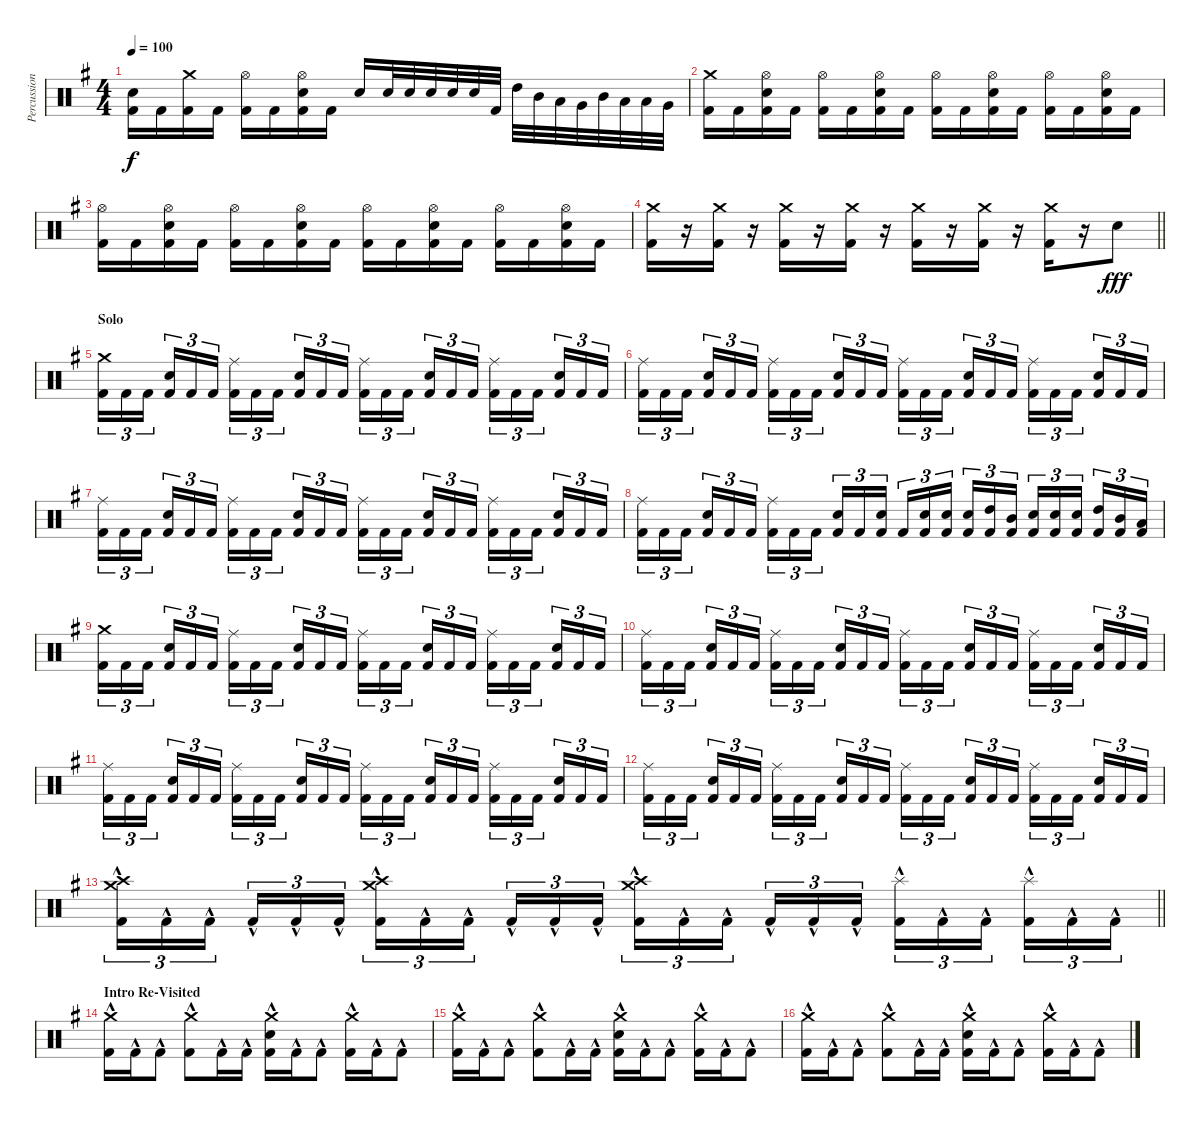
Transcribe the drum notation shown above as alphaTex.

\track ("Percussion" "Percussion") {instrument percussion}
\staff {score}
\articulation defaults
\ts (4 4)
\tempo 100
\clef neutral
\ks eminor
("Snare (hit) 2" "Kick (hit) 2").16{dy f} "Kick (hit) 2".16 ("Crash medium (hit)" "Kick (hit) 2").16 "Kick (hit) 2".16 ("Hi-Hat (open)" "Kick (hit) 2").16 "Kick (hit) 2".16 ("Hi-Hat (open)" "Snare (hit) 2" "Kick (hit) 2").16 "Kick (hit) 2".16 "Snare (hit) 2".16 "Snare (hit) 2".32 "Snare (hit) 2".32 "Snare (hit) 2".32 "Snare (hit) 2".32 "Snare (hit) 2".32 "Kick (hit) 2".32 "High Tom (hit)".32 "Mid Tom (hit)".32 "Low Tom (hit)".32 "Very Low Tom (hit)".32 "Mid Tom (hit)".32 "Low Tom (hit)".32 "Low Tom (hit)".32 "Very Low Tom (hit)".32 |
("Crash medium (hit)" "Kick (hit) 2").16 "Kick (hit) 2".16 ("Hi-Hat (open)" "Snare (hit) 2" "Kick (hit) 2").16 "Kick (hit) 2".16 ("Hi-Hat (open)" "Kick (hit) 2").16 "Kick (hit) 2".16 ("Hi-Hat (open)" "Snare (hit) 2" "Kick (hit) 2").16 "Kick (hit) 2".16 ("Hi-Hat (open)" "Kick (hit) 2").16 "Kick (hit) 2".16 ("Hi-Hat (open)" "Snare (hit) 2" "Kick (hit) 2").16 "Kick (hit) 2".16 ("Hi-Hat (open)" "Kick (hit) 2").16 "Kick (hit) 2".16 ("Hi-Hat (open)" "Snare (hit) 2" "Kick (hit) 2").16 "Kick (hit) 2".16 |
("Hi-Hat (open)" "Kick (hit) 2").16 "Kick (hit) 2".16 ("Hi-Hat (open)" "Snare (hit) 2" "Kick (hit) 2").16 "Kick (hit) 2".16 ("Hi-Hat (open)" "Kick (hit) 2").16 "Kick (hit) 2".16 ("Hi-Hat (open)" "Snare (hit) 2" "Kick (hit) 2").16 "Kick (hit) 2".16 ("Hi-Hat (open)" "Kick (hit) 2").16 "Kick (hit) 2".16 ("Hi-Hat (open)" "Snare (hit) 2" "Kick (hit) 2").16 "Kick (hit) 2".16 ("Hi-Hat (open)" "Kick (hit) 2").16 "Kick (hit) 2".16 ("Hi-Hat (open)" "Snare (hit) 2" "Kick (hit) 2").16 "Kick (hit) 2".16 |
\barLineRight lightlight
("Crash medium (hit)" "Kick (hit) 2").16 r.16 ("Crash medium (hit)" "Kick (hit) 2").16 r.16 ("Crash medium (hit)" "Kick (hit) 2").16 r.16 ("Crash medium (hit)" "Kick (hit) 2").16 r.16 ("Crash medium (hit)" "Kick (hit) 2").16 r.16 ("Crash medium (hit)" "Kick (hit) 2").16 r.16 ("Crash medium (hit)" "Kick (hit) 2").16 r.16 "Snare (hit) 2".8{dy fff} |
\section ("" "Solo")
("Crash medium (hit)" "Kick (hit) 2").16{tu (3 2)} "Kick (hit) 2".16{tu (3 2)} "Kick (hit) 2".16{tu (3 2) beam splitsecondary} ("Snare (hit) 2" "Kick (hit) 2").16{tu (3 2)} "Kick (hit) 2".16{tu (3 2)} "Kick (hit) 2".16{tu (3 2)} ("Ride (middle)" "Kick (hit) 2").16{tu (3 2)} "Kick (hit) 2".16{tu (3 2)} "Kick (hit) 2".16{tu (3 2) beam splitsecondary} ("Snare (hit) 2" "Kick (hit) 2").16{tu (3 2)} "Kick (hit) 2".16{tu (3 2)} "Kick (hit) 2".16{tu (3 2)} ("Ride (middle)" "Kick (hit) 2").16{tu (3 2)} "Kick (hit) 2".16{tu (3 2)} "Kick (hit) 2".16{tu (3 2) beam splitsecondary} ("Snare (hit) 2" "Kick (hit) 2").16{tu (3 2)} "Kick (hit) 2".16{tu (3 2)} "Kick (hit) 2".16{tu (3 2)} ("Ride (middle)" "Kick (hit) 2").16{tu (3 2)} "Kick (hit) 2".16{tu (3 2)} "Kick (hit) 2".16{tu (3 2) beam splitsecondary} ("Snare (hit) 2" "Kick (hit) 2").16{tu (3 2)} "Kick (hit) 2".16{tu (3 2)} "Kick (hit) 2".16{tu (3 2)} |
("Ride (middle)" "Kick (hit) 2").16{tu (3 2)} "Kick (hit) 2".16{tu (3 2)} "Kick (hit) 2".16{tu (3 2) beam splitsecondary} ("Snare (hit) 2" "Kick (hit) 2").16{tu (3 2)} "Kick (hit) 2".16{tu (3 2)} "Kick (hit) 2".16{tu (3 2)} ("Ride (middle)" "Kick (hit) 2").16{tu (3 2)} "Kick (hit) 2".16{tu (3 2)} "Kick (hit) 2".16{tu (3 2) beam splitsecondary} ("Snare (hit) 2" "Kick (hit) 2").16{tu (3 2)} "Kick (hit) 2".16{tu (3 2)} "Kick (hit) 2".16{tu (3 2)} ("Ride (middle)" "Kick (hit) 2").16{tu (3 2)} "Kick (hit) 2".16{tu (3 2)} "Kick (hit) 2".16{tu (3 2) beam splitsecondary} ("Snare (hit) 2" "Kick (hit) 2").16{tu (3 2)} "Kick (hit) 2".16{tu (3 2)} "Kick (hit) 2".16{tu (3 2)} ("Ride (middle)" "Kick (hit) 2").16{tu (3 2)} "Kick (hit) 2".16{tu (3 2)} "Kick (hit) 2".16{tu (3 2) beam splitsecondary} ("Snare (hit) 2" "Kick (hit) 2").16{tu (3 2)} "Kick (hit) 2".16{tu (3 2)} "Kick (hit) 2".16{tu (3 2)} |
("Ride (middle)" "Kick (hit) 2").16{tu (3 2)} "Kick (hit) 2".16{tu (3 2)} "Kick (hit) 2".16{tu (3 2) beam splitsecondary} ("Snare (hit) 2" "Kick (hit) 2").16{tu (3 2)} "Kick (hit) 2".16{tu (3 2)} "Kick (hit) 2".16{tu (3 2)} ("Ride (middle)" "Kick (hit) 2").16{tu (3 2)} "Kick (hit) 2".16{tu (3 2)} "Kick (hit) 2".16{tu (3 2) beam splitsecondary} ("Snare (hit) 2" "Kick (hit) 2").16{tu (3 2)} "Kick (hit) 2".16{tu (3 2)} "Kick (hit) 2".16{tu (3 2)} ("Ride (middle)" "Kick (hit) 2").16{tu (3 2)} "Kick (hit) 2".16{tu (3 2)} "Kick (hit) 2".16{tu (3 2) beam splitsecondary} ("Snare (hit) 2" "Kick (hit) 2").16{tu (3 2)} "Kick (hit) 2".16{tu (3 2)} "Kick (hit) 2".16{tu (3 2)} ("Ride (middle)" "Kick (hit) 2").16{tu (3 2)} "Kick (hit) 2".16{tu (3 2)} "Kick (hit) 2".16{tu (3 2) beam splitsecondary} ("Snare (hit) 2" "Kick (hit) 2").16{tu (3 2)} "Kick (hit) 2".16{tu (3 2)} "Kick (hit) 2".16{tu (3 2)} |
("Ride (middle)" "Kick (hit) 2").16{tu (3 2)} "Kick (hit) 2".16{tu (3 2)} "Kick (hit) 2".16{tu (3 2) beam splitsecondary} ("Snare (hit) 2" "Kick (hit) 2").16{tu (3 2)} "Kick (hit) 2".16{tu (3 2)} "Kick (hit) 2".16{tu (3 2)} ("Ride (middle)" "Kick (hit) 2").16{tu (3 2)} "Kick (hit) 2".16{tu (3 2)} "Kick (hit) 2".16{tu (3 2) beam splitsecondary} ("Snare (hit) 2" "Kick (hit) 2").16{tu (3 2)} "Kick (hit) 2".16{tu (3 2)} ("Snare (hit) 2" "Kick (hit) 2").16{tu (3 2)} "Kick (hit) 2".16{tu (3 2)} ("Snare (hit) 2" "Kick (hit) 2").16{tu (3 2)} ("Snare (hit) 2" "Kick (hit) 2").16{tu (3 2) beam splitsecondary} ("Snare (hit) 2" "Kick (hit) 2").16{tu (3 2)} ("High Tom (hit)" "Kick (hit) 2").16{tu (3 2)} ("Mid Tom (hit)" "Kick (hit) 2").16{tu (3 2)} ("Snare (hit) 2" "Kick (hit) 2").16{tu (3 2)} ("Snare (hit) 2" "Kick (hit) 2").16{tu (3 2)} ("Snare (hit) 2" "Kick (hit) 2").16{tu (3 2) beam splitsecondary} ("High Tom (hit)" "Kick (hit) 2").16{tu (3 2)} ("Mid Tom (hit)" "Kick (hit) 2").16{tu (3 2)} ("Low Tom (hit)" "Kick (hit) 2").16{tu (3 2)} |
("Crash medium (hit)" "Kick (hit) 2").16{tu (3 2)} "Kick (hit) 2".16{tu (3 2)} "Kick (hit) 2".16{tu (3 2) beam splitsecondary} ("Snare (hit) 2" "Kick (hit) 2").16{tu (3 2)} "Kick (hit) 2".16{tu (3 2)} "Kick (hit) 2".16{tu (3 2)} ("Ride (middle)" "Kick (hit) 2").16{tu (3 2)} "Kick (hit) 2".16{tu (3 2)} "Kick (hit) 2".16{tu (3 2) beam splitsecondary} ("Snare (hit) 2" "Kick (hit) 2").16{tu (3 2)} "Kick (hit) 2".16{tu (3 2)} "Kick (hit) 2".16{tu (3 2)} ("Ride (middle)" "Kick (hit) 2").16{tu (3 2)} "Kick (hit) 2".16{tu (3 2)} "Kick (hit) 2".16{tu (3 2) beam splitsecondary} ("Snare (hit) 2" "Kick (hit) 2").16{tu (3 2)} "Kick (hit) 2".16{tu (3 2)} "Kick (hit) 2".16{tu (3 2)} ("Ride (middle)" "Kick (hit) 2").16{tu (3 2)} "Kick (hit) 2".16{tu (3 2)} "Kick (hit) 2".16{tu (3 2) beam splitsecondary} ("Snare (hit) 2" "Kick (hit) 2").16{tu (3 2)} "Kick (hit) 2".16{tu (3 2)} "Kick (hit) 2".16{tu (3 2)} |
("Ride (middle)" "Kick (hit) 2").16{tu (3 2)} "Kick (hit) 2".16{tu (3 2)} "Kick (hit) 2".16{tu (3 2) beam splitsecondary} ("Snare (hit) 2" "Kick (hit) 2").16{tu (3 2)} "Kick (hit) 2".16{tu (3 2)} "Kick (hit) 2".16{tu (3 2)} ("Ride (middle)" "Kick (hit) 2").16{tu (3 2)} "Kick (hit) 2".16{tu (3 2)} "Kick (hit) 2".16{tu (3 2) beam splitsecondary} ("Snare (hit) 2" "Kick (hit) 2").16{tu (3 2)} "Kick (hit) 2".16{tu (3 2)} "Kick (hit) 2".16{tu (3 2)} ("Ride (middle)" "Kick (hit) 2").16{tu (3 2)} "Kick (hit) 2".16{tu (3 2)} "Kick (hit) 2".16{tu (3 2) beam splitsecondary} ("Snare (hit) 2" "Kick (hit) 2").16{tu (3 2)} "Kick (hit) 2".16{tu (3 2)} "Kick (hit) 2".16{tu (3 2)} ("Ride (middle)" "Kick (hit) 2").16{tu (3 2)} "Kick (hit) 2".16{tu (3 2)} "Kick (hit) 2".16{tu (3 2) beam splitsecondary} ("Snare (hit) 2" "Kick (hit) 2").16{tu (3 2)} "Kick (hit) 2".16{tu (3 2)} "Kick (hit) 2".16{tu (3 2)} |
("Ride (middle)" "Kick (hit) 2").16{tu (3 2)} "Kick (hit) 2".16{tu (3 2)} "Kick (hit) 2".16{tu (3 2) beam splitsecondary} ("Snare (hit) 2" "Kick (hit) 2").16{tu (3 2)} "Kick (hit) 2".16{tu (3 2)} "Kick (hit) 2".16{tu (3 2)} ("Ride (middle)" "Kick (hit) 2").16{tu (3 2)} "Kick (hit) 2".16{tu (3 2)} "Kick (hit) 2".16{tu (3 2) beam splitsecondary} ("Snare (hit) 2" "Kick (hit) 2").16{tu (3 2)} "Kick (hit) 2".16{tu (3 2)} "Kick (hit) 2".16{tu (3 2)} ("Ride (middle)" "Kick (hit) 2").16{tu (3 2)} "Kick (hit) 2".16{tu (3 2)} "Kick (hit) 2".16{tu (3 2) beam splitsecondary} ("Snare (hit) 2" "Kick (hit) 2").16{tu (3 2)} "Kick (hit) 2".16{tu (3 2)} "Kick (hit) 2".16{tu (3 2)} ("Ride (middle)" "Kick (hit) 2").16{tu (3 2)} "Kick (hit) 2".16{tu (3 2)} "Kick (hit) 2".16{tu (3 2) beam splitsecondary} ("Snare (hit) 2" "Kick (hit) 2").16{tu (3 2)} "Kick (hit) 2".16{tu (3 2)} "Kick (hit) 2".16{tu (3 2)} |
("Ride (middle)" "Kick (hit) 2").16{tu (3 2)} "Kick (hit) 2".16{tu (3 2)} "Kick (hit) 2".16{tu (3 2) beam splitsecondary} ("Snare (hit) 2" "Kick (hit) 2").16{tu (3 2)} "Kick (hit) 2".16{tu (3 2)} "Kick (hit) 2".16{tu (3 2)} ("Ride (middle)" "Kick (hit) 2").16{tu (3 2)} "Kick (hit) 2".16{tu (3 2)} "Kick (hit) 2".16{tu (3 2) beam splitsecondary} ("Snare (hit) 2" "Kick (hit) 2").16{tu (3 2)} "Kick (hit) 2".16{tu (3 2)} "Kick (hit) 2".16{tu (3 2)} ("Ride (middle)" "Kick (hit) 2").16{tu (3 2)} "Kick (hit) 2".16{tu (3 2)} "Kick (hit) 2".16{tu (3 2) beam splitsecondary} ("Snare (hit) 2" "Kick (hit) 2").16{tu (3 2)} "Kick (hit) 2".16{tu (3 2)} "Kick (hit) 2".16{tu (3 2)} ("Ride (middle)" "Kick (hit) 2").16{tu (3 2)} "Kick (hit) 2".16{tu (3 2)} "Kick (hit) 2".16{tu (3 2) beam splitsecondary} ("Snare (hit) 2" "Kick (hit) 2").16{tu (3 2)} "Kick (hit) 2".16{tu (3 2)} "Kick (hit) 2".16{tu (3 2)} |
\barLineRight lightlight
("Crash medium (hit)"{hac} "Crash high (hit)"{hac} "Kick (hit) 2"{hac}).16{tu (3 2)} "Kick (hit) 2"{hac}.16{tu (3 2)} "Kick (hit) 2"{hac}.16{tu (3 2) beam splitsecondary} "Kick (hit) 2"{hac}.16{tu (3 2)} "Kick (hit) 2"{hac}.16{tu (3 2)} "Kick (hit) 2"{hac}.16{tu (3 2)} ("Crash high (hit)"{hac} "Crash medium (hit)"{hac} "Kick (hit) 2"{hac}).16{tu (3 2)} "Kick (hit) 2"{hac}.16{tu (3 2)} "Kick (hit) 2"{hac}.16{tu (3 2) beam splitsecondary} "Kick (hit) 2"{hac}.16{tu (3 2)} "Kick (hit) 2"{hac}.16{tu (3 2)} "Kick (hit) 2"{hac}.16{tu (3 2)} ("Crash medium (hit)"{hac} "Crash high (hit)"{hac} "Kick (hit) 2"{hac}).16{tu (3 2)} "Kick (hit) 2"{hac}.16{tu (3 2)} "Kick (hit) 2"{hac}.16{tu (3 2) beam splitsecondary} "Kick (hit) 2"{hac}.16{tu (3 2)} "Kick (hit) 2"{hac}.16{tu (3 2)} "Kick (hit) 2"{hac}.16{tu (3 2)} ("Splash (hit)"{hac} "Kick (hit) 2"{hac}).16{tu (3 2)} "Kick (hit) 2"{hac}.16{tu (3 2)} "Kick (hit) 2"{hac}.16{tu (3 2) beam splitsecondary} ("Splash (hit)"{hac} "Kick (hit) 2"{hac}).16{tu (3 2)} "Kick (hit) 2"{hac}.16{tu (3 2)} "Kick (hit) 2"{hac}.16{tu (3 2)} |
\section ("" "Intro Re-Visited")
("Crash medium (hit)"{hac} "Kick (hit) 2"{hac}).16 "Kick (hit) 2"{hac}.16 "Kick (hit) 2"{hac}.8 ("Crash medium (hit)"{hac} "Kick (hit) 2"{hac}).8 "Kick (hit) 2"{hac}.16 "Kick (hit) 2"{hac}.16 ("Crash medium (hit)"{hac} "Snare (hit) 2"{hac} "Kick (hit) 2"{hac}).16 "Kick (hit) 2"{hac}.16 "Kick (hit) 2"{hac}.8 ("Crash medium (hit)"{hac} "Kick (hit) 2"{hac}).16 "Kick (hit) 2"{hac}.16 "Kick (hit) 2"{hac}.8 |
("Crash medium (hit)"{hac} "Kick (hit) 2"{hac}).16 "Kick (hit) 2"{hac}.16 "Kick (hit) 2"{hac}.8 ("Crash medium (hit)"{hac} "Kick (hit) 2"{hac}).8 "Kick (hit) 2"{hac}.16 "Kick (hit) 2"{hac}.16 ("Crash medium (hit)"{hac} "Snare (hit) 2"{hac} "Kick (hit) 2"{hac}).16 "Kick (hit) 2"{hac}.16 "Kick (hit) 2"{hac}.8 ("Crash medium (hit)"{hac} "Kick (hit) 2"{hac}).16 "Kick (hit) 2"{hac}.16 "Kick (hit) 2"{hac}.8 |
("Crash medium (hit)"{hac} "Kick (hit) 2"{hac}).16 "Kick (hit) 2"{hac}.16 "Kick (hit) 2"{hac}.8 ("Crash medium (hit)"{hac} "Kick (hit) 2"{hac}).8 "Kick (hit) 2"{hac}.16 "Kick (hit) 2"{hac}.16 ("Crash medium (hit)"{hac} "Snare (hit) 2"{hac} "Kick (hit) 2"{hac}).16 "Kick (hit) 2"{hac}.16 "Kick (hit) 2"{hac}.8 ("Crash medium (hit)"{hac} "Kick (hit) 2"{hac}).16 "Kick (hit) 2"{hac}.16 "Kick (hit) 2"{hac}.8
